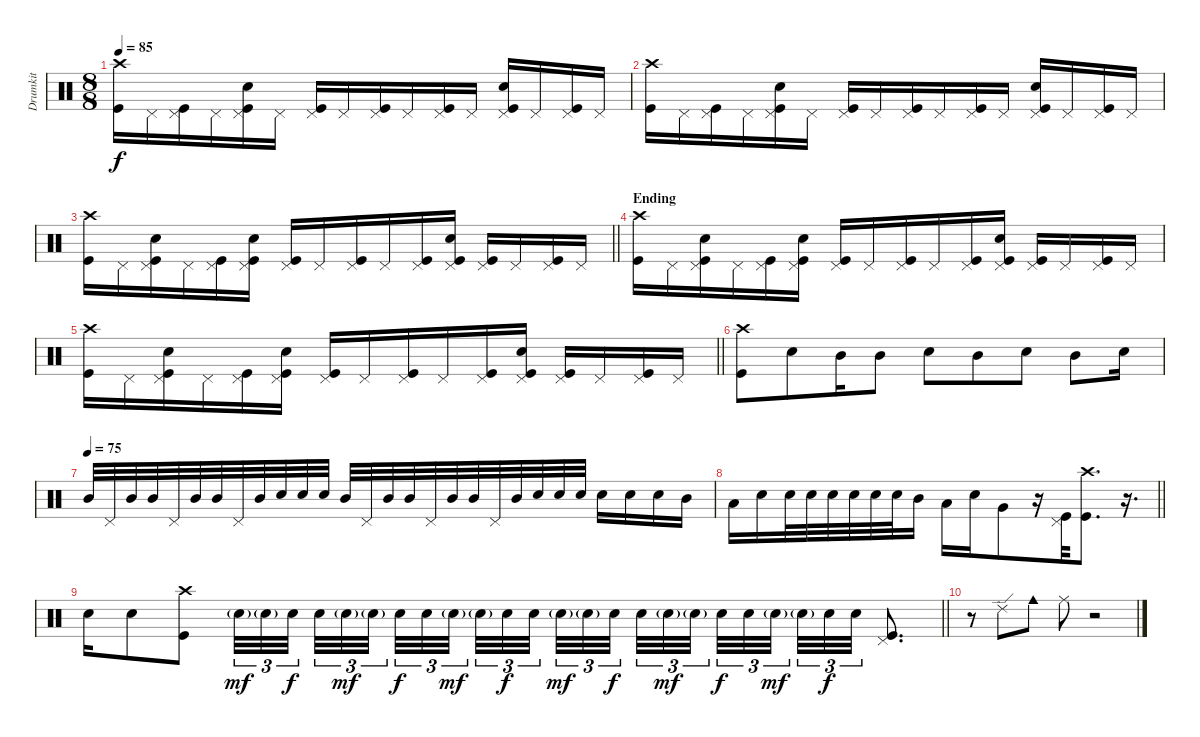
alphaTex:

\track ("Drumkit" "Drumkit") {instrument percussion}
\staff {score}
\articulation defaults
\ts (8 8)
\tempo 85
\clef neutral
\ks c
("Kick (hit)" "Crash high (hit)").16{dy f} "Pedal Hi-Hat (hit)".16 ("Kick (hit)" "Pedal Hi-Hat (hit)").16 "Pedal Hi-Hat (hit)".16 ("Kick (hit)" "Snare (hit) 2" "Pedal Hi-Hat (hit)").16 "Pedal Hi-Hat (hit)".16 ("Kick (hit)" "Pedal Hi-Hat (hit)").16 "Pedal Hi-Hat (hit)".16 ("Kick (hit)" "Pedal Hi-Hat (hit)").16 "Pedal Hi-Hat (hit)".16 ("Kick (hit)" "Pedal Hi-Hat (hit)").16 "Pedal Hi-Hat (hit)".16 ("Kick (hit)" "Snare (hit) 2" "Pedal Hi-Hat (hit)").16 "Pedal Hi-Hat (hit)".16 ("Kick (hit)" "Pedal Hi-Hat (hit)").16 "Pedal Hi-Hat (hit)".16 |
("Kick (hit)" "Crash high (hit)").16 "Pedal Hi-Hat (hit)".16 ("Kick (hit)" "Pedal Hi-Hat (hit)").16 "Pedal Hi-Hat (hit)".16 ("Kick (hit)" "Snare (hit) 2" "Pedal Hi-Hat (hit)").16 "Pedal Hi-Hat (hit)".16 ("Kick (hit)" "Pedal Hi-Hat (hit)").16 "Pedal Hi-Hat (hit)".16 ("Kick (hit)" "Pedal Hi-Hat (hit)").16 "Pedal Hi-Hat (hit)".16 ("Kick (hit)" "Pedal Hi-Hat (hit)").16 "Pedal Hi-Hat (hit)".16 ("Kick (hit)" "Snare (hit) 2" "Pedal Hi-Hat (hit)").16 "Pedal Hi-Hat (hit)".16 ("Kick (hit)" "Pedal Hi-Hat (hit)").16 "Pedal Hi-Hat (hit)".16 |
\barLineRight lightlight
("Kick (hit)" "Crash high (hit)").16 "Pedal Hi-Hat (hit)".16 ("Kick (hit)" "Snare (hit) 2" "Pedal Hi-Hat (hit)").16 "Pedal Hi-Hat (hit)".16 ("Kick (hit)" "Pedal Hi-Hat (hit)").16 ("Kick (hit)" "Snare (hit) 2" "Pedal Hi-Hat (hit)").16 ("Kick (hit)" "Pedal Hi-Hat (hit)").16 "Pedal Hi-Hat (hit)".16 ("Kick (hit)" "Pedal Hi-Hat (hit)").16 "Pedal Hi-Hat (hit)".16 ("Kick (hit)" "Pedal Hi-Hat (hit)").16 ("Kick (hit)" "Snare (hit) 2" "Pedal Hi-Hat (hit)").16 ("Kick (hit)" "Pedal Hi-Hat (hit)").16 "Pedal Hi-Hat (hit)".16 ("Kick (hit)" "Pedal Hi-Hat (hit)").16 "Pedal Hi-Hat (hit)".16 |
\section ("" "Ending ")
("Kick (hit)" "Crash high (hit)").16 "Pedal Hi-Hat (hit)".16 ("Kick (hit)" "Snare (hit) 2" "Pedal Hi-Hat (hit)").16 "Pedal Hi-Hat (hit)".16 ("Kick (hit)" "Pedal Hi-Hat (hit)").16 ("Kick (hit)" "Snare (hit) 2" "Pedal Hi-Hat (hit)").16 ("Kick (hit)" "Pedal Hi-Hat (hit)").16 "Pedal Hi-Hat (hit)".16 ("Kick (hit)" "Pedal Hi-Hat (hit)").16 "Pedal Hi-Hat (hit)".16 ("Kick (hit)" "Pedal Hi-Hat (hit)").16 ("Kick (hit)" "Snare (hit) 2" "Pedal Hi-Hat (hit)").16 ("Kick (hit)" "Pedal Hi-Hat (hit)").16 "Pedal Hi-Hat (hit)".16 ("Kick (hit)" "Pedal Hi-Hat (hit)").16 "Pedal Hi-Hat (hit)".16 |
\barLineRight lightlight
("Kick (hit)" "Crash high (hit)").16 "Pedal Hi-Hat (hit)".16 ("Kick (hit)" "Snare (hit) 2" "Pedal Hi-Hat (hit)").16 "Pedal Hi-Hat (hit)".16 ("Kick (hit)" "Pedal Hi-Hat (hit)").16 ("Kick (hit)" "Snare (hit) 2" "Pedal Hi-Hat (hit)").16 ("Kick (hit)" "Pedal Hi-Hat (hit)").16 "Pedal Hi-Hat (hit)".16 ("Kick (hit)" "Pedal Hi-Hat (hit)").16 "Pedal Hi-Hat (hit)".16 ("Kick (hit)" "Pedal Hi-Hat (hit)").16 ("Kick (hit)" "Snare (hit) 2" "Pedal Hi-Hat (hit)").16 ("Kick (hit)" "Pedal Hi-Hat (hit)").16 "Pedal Hi-Hat (hit)".16 ("Kick (hit)" "Pedal Hi-Hat (hit)").16 "Pedal Hi-Hat (hit)".16 |
("Kick (hit)" "Crash high (hit)").8 "Snare (hit) 2".8 "Mid Tom (hit)".16 "Mid Tom (hit)".8 "Snare (hit) 2".8 "Mid Tom (hit)".8 "Snare (hit) 2".8 "Mid Tom (hit)".8 "Snare (hit) 2".16 |
\tempo (75)
"Mid Tom (hit)".32 "Pedal Hi-Hat (hit)".32 "Mid Tom (hit)".32 "Mid Tom (hit)".32 "Pedal Hi-Hat (hit)".32 "Mid Tom (hit)".32 "Mid Tom (hit)".32 "Pedal Hi-Hat (hit)".32 "Mid Tom (hit)".32 "Snare (hit) 2".32 "Snare (hit) 2".32 "Snare (hit) 2".32 "Mid Tom (hit)".32 "Pedal Hi-Hat (hit)".32 "Mid Tom (hit)".32 "Mid Tom (hit)".32 "Pedal Hi-Hat (hit)".32 "Mid Tom (hit)".32 "Mid Tom (hit)".32 "Pedal Hi-Hat (hit)".32 "Mid Tom (hit)".32 "Snare (hit) 2".32 "Snare (hit) 2".32 "Snare (hit) 2".32 "Snare (hit) 2".16 "Snare (hit) 2".16 "Snare (hit) 2".16 "Mid Tom (hit)".16 |
\barLineRight lightlight "Low Tom (hit)".16 "Snare (hit) 2".16 "Snare (hit) 2".32 "Snare (hit) 2".32 "Snare (hit) 2".32 "Snare (hit) 2".32 "Snare (hit) 2".32 "Snare (hit) 2".32 "Mid Tom (hit)".16 "Low Tom (hit)".16 "Snare (hit) 2".16 "Very Low Tom (hit)".8
r.16 ("Kick (hit)" "Pedal Hi-Hat (hit)").32 ("Kick (hit)" "Crash high (hit)").8{d} r.16{d} |
\barLineRight lightlight "Snare (hit) 2".16 "Snare (hit) 2".8
("Kick (hit)" "Crash high (hit)").8 "Snare (hit) 2"{g}.32{tu (3 2) dy mf} "Snare (hit) 2"{g}.32{tu (3 2)} "Snare (hit) 2".32{tu (3 2) dy f} "Snare (hit) 2".32{tu (3 2)} "Snare (hit) 2"{g}.32{tu (3 2) dy mf} "Snare (hit) 2"{g}.32{tu (3 2)} "Snare (hit) 2".32{tu (3 2) dy f} "Snare (hit) 2".32{tu (3 2)} "Snare (hit) 2"{g}.32{tu (3 2) dy mf} "Snare (hit) 2"{g}.32{tu (3 2)} "Snare (hit) 2".32{tu (3 2) dy f} "Snare (hit) 2".32{tu (3 2)} "Snare (hit) 2"{g}.32{tu (3 2) dy mf} "Snare (hit) 2"{g}.32{tu (3 2)} "Snare (hit) 2".32{tu (3 2) dy f} "Snare (hit) 2".32{tu (3 2)} "Snare (hit) 2"{g}.32{tu (3 2) dy mf} "Snare (hit) 2"{g}.32{tu (3 2)} "Snare (hit) 2".32{tu (3 2) dy f} "Snare (hit) 2".32{tu (3 2)} "Snare (hit) 2"{g}.32{tu (3 2) dy mf} "Snare (hit) 2"{g}.32{tu (3 2)} "Snare (hit) 2".32{tu (3 2) dy f} "Snare (hit) 2".32{tu (3 2)} ("Kick (hit)" "Pedal Hi-Hat (hit)").8{d} |
r.8 "Ride (edge) 2".8 "Cowbell medium (hit)".8 "Ride (middle)".8 r.2
